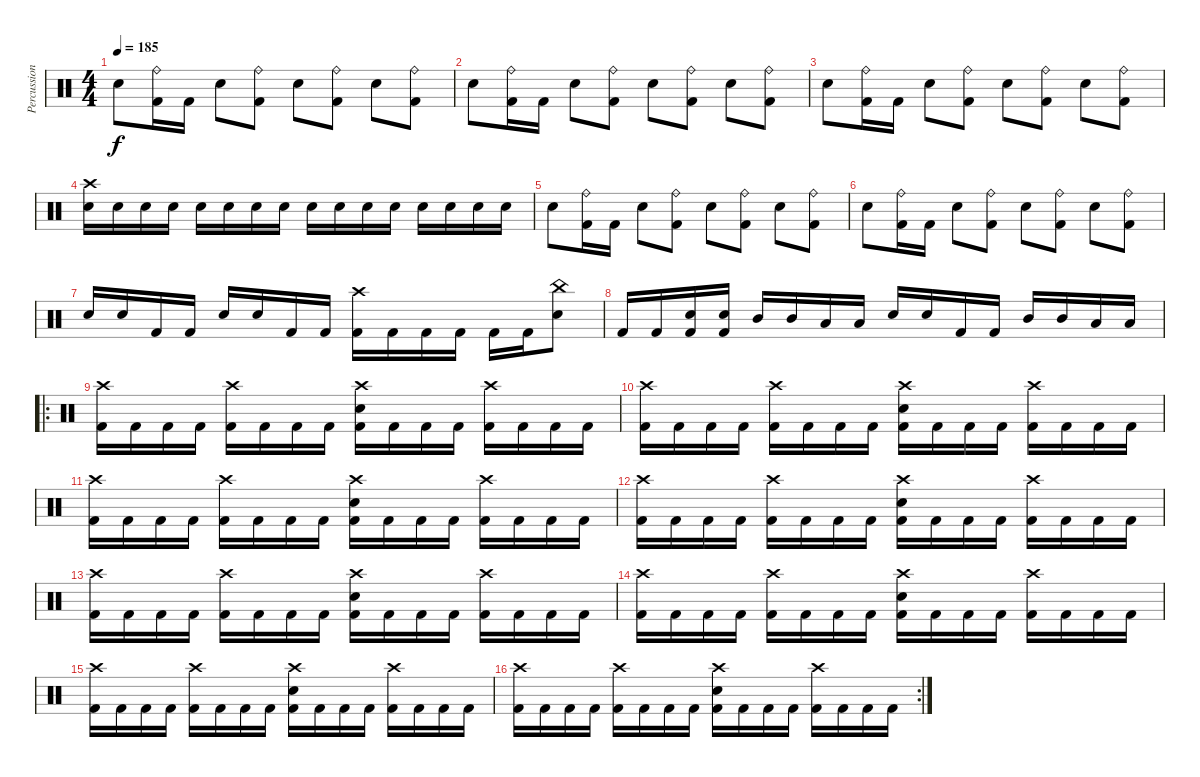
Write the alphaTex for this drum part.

\track ("Percussion" "Percussion") {instrument percussion}
\staff {score}
\articulation defaults
\ts (4 4)
\tempo 185
\clef neutral
\ks c "Snare (hit) 2".8{dy f}
("Ride (bell)" "Kick (hit) 2").16 "Kick (hit) 2".16 "Snare (hit) 2".8 ("Ride (bell)" "Kick (hit) 2").8 "Snare (hit) 2".8 ("Ride (bell)" "Kick (hit) 2").8 "Snare (hit) 2".8 ("Ride (bell)" "Kick (hit) 2").8 |
"Snare (hit) 2".8 ("Ride (bell)" "Kick (hit) 2").16 "Kick (hit) 2".16 "Snare (hit) 2".8 ("Ride (bell)" "Kick (hit) 2").8 "Snare (hit) 2".8 ("Ride (bell)" "Kick (hit) 2").8 "Snare (hit) 2".8 ("Ride (bell)" "Kick (hit) 2").8 |
"Snare (hit) 2".8 ("Ride (bell)" "Kick (hit) 2").16 "Kick (hit) 2".16 "Snare (hit) 2".8 ("Ride (bell)" "Kick (hit) 2").8 "Snare (hit) 2".8 ("Ride (bell)" "Kick (hit) 2").8 "Snare (hit) 2".8 ("Ride (bell)" "Kick (hit) 2").8 |
("Crash high (hit)" "Snare (hit) 2").16 "Snare (hit) 2".16 "Snare (hit) 2".16 "Snare (hit) 2".16 "Snare (hit) 2".16 "Snare (hit) 2".16 "Snare (hit) 2".16 "Snare (hit) 2".16 "Snare (hit) 2".16 "Snare (hit) 2".16 "Snare (hit) 2".16 "Snare (hit) 2".16 "Snare (hit) 2".16 "Snare (hit) 2".16 "Snare (hit) 2".16 "Snare (hit) 2".16 |
"Snare (hit) 2".8 ("Ride (bell)" "Kick (hit) 2").16 "Kick (hit) 2".16 "Snare (hit) 2".8 ("Ride (bell)" "Kick (hit) 2").8 "Snare (hit) 2".8 ("Ride (bell)" "Kick (hit) 2").8 "Snare (hit) 2".8 ("Ride (bell)" "Kick (hit) 2").8 |
"Snare (hit) 2".8 ("Ride (bell)" "Kick (hit) 2").16 "Kick (hit) 2".16 "Snare (hit) 2".8 ("Ride (bell)" "Kick (hit) 2").8 "Snare (hit) 2".8 ("Ride (bell)" "Kick (hit) 2").8 "Snare (hit) 2".8 ("Ride (bell)" "Kick (hit) 2").8 |
"Snare (hit) 2".16 "Snare (hit) 2".16 "Kick (hit) 2".16 "Kick (hit) 2".16 "Snare (hit) 2".16 "Snare (hit) 2".16 "Kick (hit) 2".16 "Kick (hit) 2".16 ("Crash high (hit)" "Kick (hit) 2").16 "Kick (hit) 2".16 "Kick (hit) 2".16 "Kick (hit) 2".16 "Kick (hit) 2".16 "Kick (hit) 2".16 ("Snare (hit) 2" "China (hit)").8 |
"Kick (hit) 2".16 "Kick (hit) 2".16 ("Snare (hit) 2" "Kick (hit) 2").16 ("Snare (hit) 2" "Kick (hit) 2").16 "Mid Tom (hit)".16 "Mid Tom (hit)".16 "Low Tom (hit)".16 "Low Tom (hit)".16 "Snare (hit) 2".16 "Snare (hit) 2".16 "Kick (hit) 2".16 "Kick (hit) 2".16 "Mid Tom (hit)".16 "Mid Tom (hit)".16 "Low Tom (hit)".16 "Low Tom (hit)".16 |
\ro
("Crash high (hit)" "Kick (hit) 2").16 "Kick (hit) 2".16 "Kick (hit) 2".16 "Kick (hit) 2".16 ("Crash high (hit)" "Kick (hit) 2").16 "Kick (hit) 2".16 "Kick (hit) 2".16 "Kick (hit) 2".16 ("Crash high (hit)" "Snare (hit) 2" "Kick (hit) 2").16 "Kick (hit) 2".16 "Kick (hit) 2".16 "Kick (hit) 2".16 ("Crash high (hit)" "Kick (hit) 2").16 "Kick (hit) 2".16 "Kick (hit) 2".16 "Kick (hit) 2".16 |
("Crash high (hit)" "Kick (hit) 2").16 "Kick (hit) 2".16 "Kick (hit) 2".16 "Kick (hit) 2".16 ("Crash high (hit)" "Kick (hit) 2").16 "Kick (hit) 2".16 "Kick (hit) 2".16 "Kick (hit) 2".16 ("Crash high (hit)" "Snare (hit) 2" "Kick (hit) 2").16 "Kick (hit) 2".16 "Kick (hit) 2".16 "Kick (hit) 2".16 ("Crash high (hit)" "Kick (hit) 2").16 "Kick (hit) 2".16 "Kick (hit) 2".16 "Kick (hit) 2".16 |
("Crash high (hit)" "Kick (hit) 2").16 "Kick (hit) 2".16 "Kick (hit) 2".16 "Kick (hit) 2".16 ("Crash high (hit)" "Kick (hit) 2").16 "Kick (hit) 2".16 "Kick (hit) 2".16 "Kick (hit) 2".16 ("Crash high (hit)" "Snare (hit) 2" "Kick (hit) 2").16 "Kick (hit) 2".16 "Kick (hit) 2".16 "Kick (hit) 2".16 ("Crash high (hit)" "Kick (hit) 2").16 "Kick (hit) 2".16 "Kick (hit) 2".16 "Kick (hit) 2".16 |
("Crash high (hit)" "Kick (hit) 2").16 "Kick (hit) 2".16 "Kick (hit) 2".16 "Kick (hit) 2".16 ("Crash high (hit)" "Kick (hit) 2").16 "Kick (hit) 2".16 "Kick (hit) 2".16 "Kick (hit) 2".16 ("Crash high (hit)" "Snare (hit) 2" "Kick (hit) 2").16 "Kick (hit) 2".16 "Kick (hit) 2".16 "Kick (hit) 2".16 ("Crash high (hit)" "Kick (hit) 2").16 "Kick (hit) 2".16 "Kick (hit) 2".16 "Kick (hit) 2".16 |
("Crash high (hit)" "Kick (hit) 2").16 "Kick (hit) 2".16 "Kick (hit) 2".16 "Kick (hit) 2".16 ("Crash high (hit)" "Kick (hit) 2").16 "Kick (hit) 2".16 "Kick (hit) 2".16 "Kick (hit) 2".16 ("Crash high (hit)" "Snare (hit) 2" "Kick (hit) 2").16 "Kick (hit) 2".16 "Kick (hit) 2".16 "Kick (hit) 2".16 ("Crash high (hit)" "Kick (hit) 2").16 "Kick (hit) 2".16 "Kick (hit) 2".16 "Kick (hit) 2".16 |
("Crash high (hit)" "Kick (hit) 2").16 "Kick (hit) 2".16 "Kick (hit) 2".16 "Kick (hit) 2".16 ("Crash high (hit)" "Kick (hit) 2").16 "Kick (hit) 2".16 "Kick (hit) 2".16 "Kick (hit) 2".16 ("Crash high (hit)" "Snare (hit) 2" "Kick (hit) 2").16 "Kick (hit) 2".16 "Kick (hit) 2".16 "Kick (hit) 2".16 ("Crash high (hit)" "Kick (hit) 2").16 "Kick (hit) 2".16 "Kick (hit) 2".16 "Kick (hit) 2".16 |
("Crash high (hit)" "Kick (hit) 2").16 "Kick (hit) 2".16 "Kick (hit) 2".16 "Kick (hit) 2".16 ("Crash high (hit)" "Kick (hit) 2").16 "Kick (hit) 2".16 "Kick (hit) 2".16 "Kick (hit) 2".16 ("Crash high (hit)" "Snare (hit) 2" "Kick (hit) 2").16 "Kick (hit) 2".16 "Kick (hit) 2".16 "Kick (hit) 2".16 ("Crash high (hit)" "Kick (hit) 2").16 "Kick (hit) 2".16 "Kick (hit) 2".16 "Kick (hit) 2".16 |
\rc 2
("Crash high (hit)" "Kick (hit) 2").16 "Kick (hit) 2".16 "Kick (hit) 2".16 "Kick (hit) 2".16 ("Crash high (hit)" "Kick (hit) 2").16 "Kick (hit) 2".16 "Kick (hit) 2".16 "Kick (hit) 2".16 ("Crash high (hit)" "Snare (hit) 2" "Kick (hit) 2").16 "Kick (hit) 2".16 "Kick (hit) 2".16 "Kick (hit) 2".16 ("Crash high (hit)" "Kick (hit) 2").16 "Kick (hit) 2".16 "Kick (hit) 2".16 "Kick (hit) 2".16
